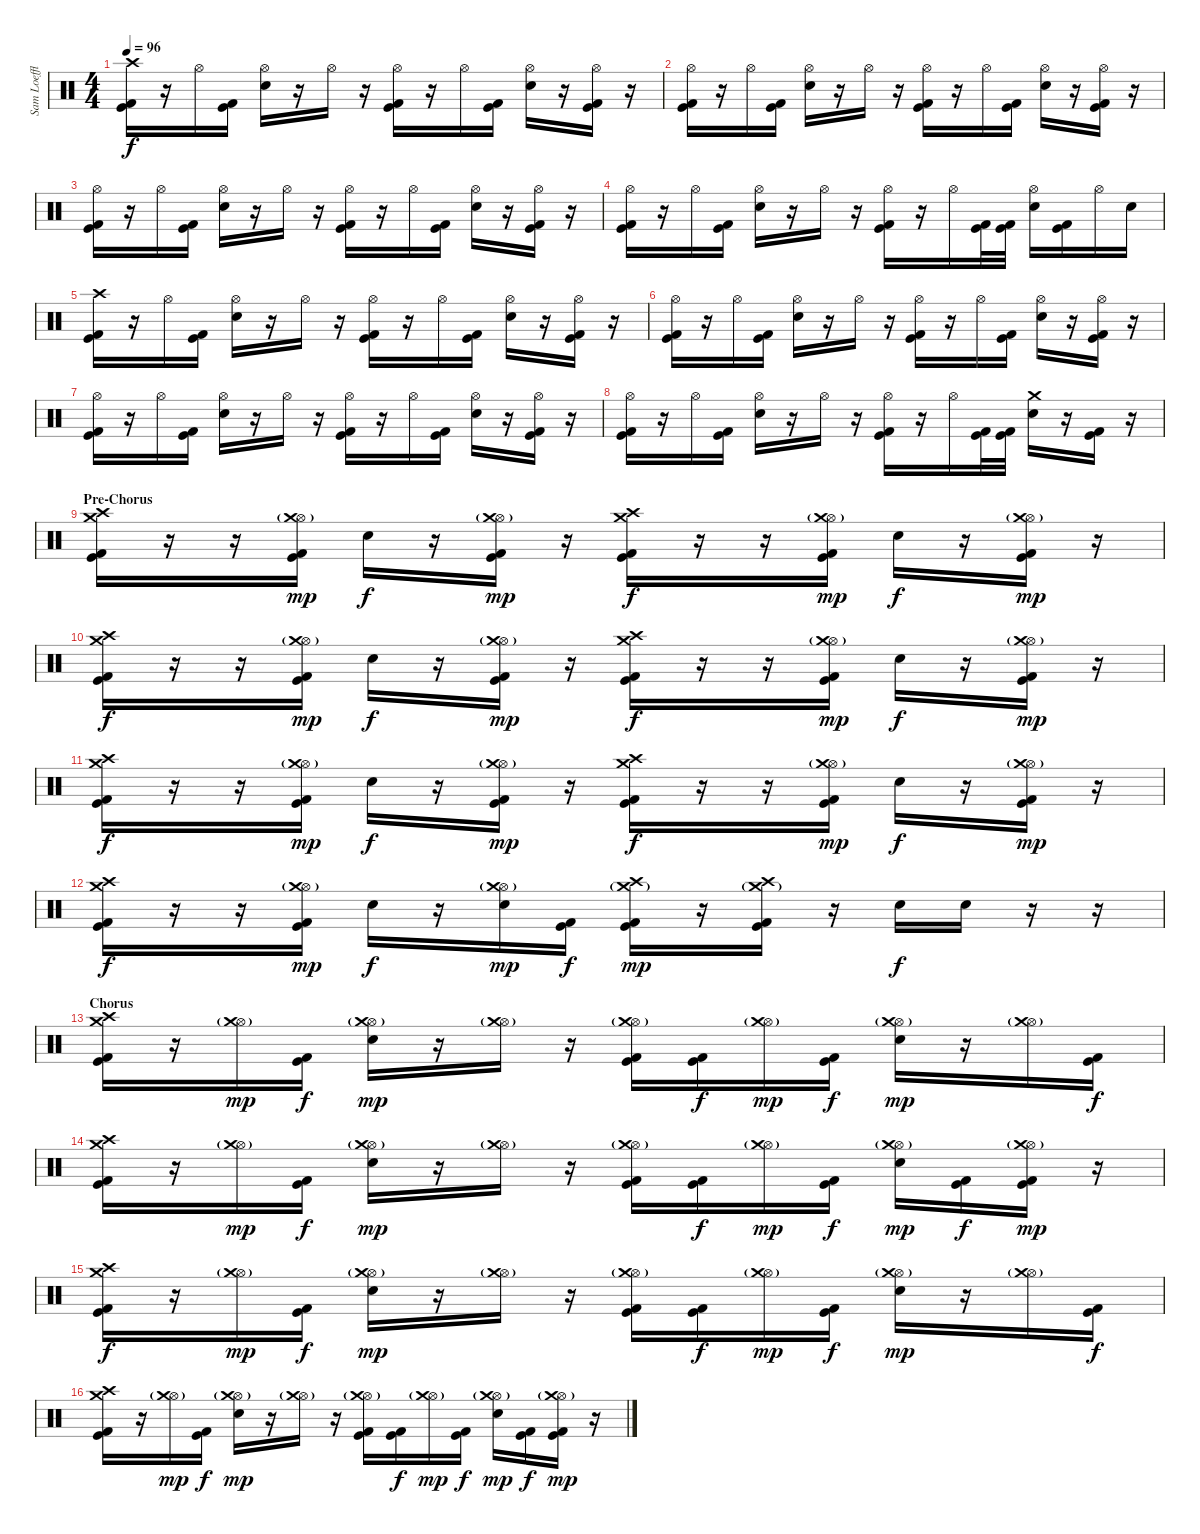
\track ("Sam Loeffler - Drums" "Sam Loeffl") {instrument percussion}
\staff {score}
\articulation defaults
\ts (4 4)
\tempo 96
\clef neutral
\ks c
("Crash high (hit)" "Kick (hit)" "Kick (hit) 2").16{dy f} r.16 "Hi-Hat (open)".16 ("Kick (hit)" "Kick (hit) 2").16 ("Hi-Hat (open)" "Electric Snare (hit)").16 r.16 "Hi-Hat (open)".16 r.16 ("Hi-Hat (open)" "Kick (hit)" "Kick (hit) 2").16 r.16 "Hi-Hat (open)".16 ("Kick (hit)" "Kick (hit) 2").16 ("Hi-Hat (open)" "Electric Snare (hit)").16 r.16 ("Hi-Hat (open)" "Kick (hit)" "Kick (hit) 2").16 r.16 |
("Hi-Hat (open)" "Kick (hit)" "Kick (hit) 2").16 r.16 "Hi-Hat (open)".16 ("Kick (hit)" "Kick (hit) 2").16 ("Hi-Hat (open)" "Electric Snare (hit)").16 r.16 "Hi-Hat (open)".16 r.16 ("Hi-Hat (open)" "Kick (hit)" "Kick (hit) 2").16 r.16 "Hi-Hat (open)".16 ("Kick (hit)" "Kick (hit) 2").16 ("Hi-Hat (open)" "Electric Snare (hit)").16 r.16 ("Hi-Hat (open)" "Kick (hit)" "Kick (hit) 2").16 r.16 |
("Hi-Hat (open)" "Kick (hit)" "Kick (hit) 2").16 r.16 "Hi-Hat (open)".16 ("Kick (hit)" "Kick (hit) 2").16 ("Hi-Hat (open)" "Electric Snare (hit)").16 r.16 "Hi-Hat (open)".16 r.16 ("Hi-Hat (open)" "Kick (hit)" "Kick (hit) 2").16 r.16 "Hi-Hat (open)".16 ("Kick (hit)" "Kick (hit) 2").16 ("Hi-Hat (open)" "Electric Snare (hit)").16 r.16 ("Hi-Hat (open)" "Kick (hit)" "Kick (hit) 2").16 r.16 |
("Hi-Hat (open)" "Kick (hit)" "Kick (hit) 2").16 r.16 "Hi-Hat (open)".16 ("Kick (hit)" "Kick (hit) 2").16 ("Hi-Hat (open)" "Electric Snare (hit)").16 r.16 "Hi-Hat (open)".16 r.16 ("Hi-Hat (open)" "Kick (hit)" "Kick (hit) 2").16 r.16 "Hi-Hat (open)".16 ("Kick (hit)" "Kick (hit) 2").32 ("Kick (hit)" "Kick (hit) 2").32 ("Hi-Hat (open)" "Electric Snare (hit)").16 ("Kick (hit)" "Kick (hit) 2").16 "Hi-Hat (open)".16 "Electric Snare (hit)".16 |
("Crash high (hit)" "Kick (hit)" "Kick (hit) 2").16 r.16 "Hi-Hat (open)".16 ("Kick (hit)" "Kick (hit) 2").16 ("Hi-Hat (open)" "Electric Snare (hit)").16 r.16 "Hi-Hat (open)".16 r.16 ("Hi-Hat (open)" "Kick (hit)" "Kick (hit) 2").16 r.16 "Hi-Hat (open)".16 ("Kick (hit)" "Kick (hit) 2").16 ("Hi-Hat (open)" "Electric Snare (hit)").16 r.16 ("Hi-Hat (open)" "Kick (hit)" "Kick (hit) 2").16 r.16 |
("Hi-Hat (open)" "Kick (hit)" "Kick (hit) 2").16 r.16 "Hi-Hat (open)".16 ("Kick (hit)" "Kick (hit) 2").16 ("Hi-Hat (open)" "Electric Snare (hit)").16 r.16 "Hi-Hat (open)".16 r.16 ("Hi-Hat (open)" "Kick (hit)" "Kick (hit) 2").16 r.16 "Hi-Hat (open)".16 ("Kick (hit)" "Kick (hit) 2").16 ("Hi-Hat (open)" "Electric Snare (hit)").16 r.16 ("Hi-Hat (open)" "Kick (hit)" "Kick (hit) 2").16 r.16 |
("Hi-Hat (open)" "Kick (hit)" "Kick (hit) 2").16 r.16 "Hi-Hat (open)".16 ("Kick (hit)" "Kick (hit) 2").16 ("Hi-Hat (open)" "Electric Snare (hit)").16 r.16 "Hi-Hat (open)".16 r.16 ("Hi-Hat (open)" "Kick (hit)" "Kick (hit) 2").16 r.16 "Hi-Hat (open)".16 ("Kick (hit)" "Kick (hit) 2").16 ("Hi-Hat (open)" "Electric Snare (hit)").16 r.16 ("Hi-Hat (open)" "Kick (hit)" "Kick (hit) 2").16 r.16 |
("Hi-Hat (open)" "Kick (hit)" "Kick (hit) 2").16 r.16 "Hi-Hat (open)".16 ("Kick (hit)" "Kick (hit) 2").16 ("Hi-Hat (open)" "Electric Snare (hit)").16 r.16 "Hi-Hat (open)".16 r.16 ("Hi-Hat (open)" "Kick (hit)" "Kick (hit) 2").16 r.16 "Hi-Hat (open)".16 ("Kick (hit)" "Kick (hit) 2").32 ("Kick (hit)" "Kick (hit) 2").32 ("Crash medium (hit)" "Electric Snare (hit)").16 r.16 ("Kick (hit)" "Kick (hit) 2").16 r.16 |
\section ("" "Pre-Chorus")
("Crash high (hit)" "Crash medium (hit)" "Kick (hit)" "Kick (hit) 2").16 r.16 r.16 ("Hi-Hat (open)" "Crash medium (hit)"{g} "Kick (hit)" "Kick (hit) 2").16{dy mp} "Electric Snare (hit)".16{dy f} r.16 ("Hi-Hat (open)" "Crash medium (hit)"{g} "Kick (hit)" "Kick (hit) 2").16{dy mp} r.16 ("Crash high (hit)" "Crash medium (hit)" "Kick (hit)" "Kick (hit) 2").16{dy f} r.16 r.16 ("Hi-Hat (open)" "Crash medium (hit)"{g} "Kick (hit)" "Kick (hit) 2").16{dy mp} "Electric Snare (hit)".16{dy f} r.16 ("Hi-Hat (open)" "Crash medium (hit)"{g} "Kick (hit)" "Kick (hit) 2").16{dy mp} r.16 |
("Crash high (hit)" "Crash medium (hit)" "Kick (hit)" "Kick (hit) 2").16{dy f} r.16 r.16 ("Hi-Hat (open)" "Crash medium (hit)"{g} "Kick (hit)" "Kick (hit) 2").16{dy mp} "Electric Snare (hit)".16{dy f} r.16 ("Hi-Hat (open)" "Crash medium (hit)"{g} "Kick (hit)" "Kick (hit) 2").16{dy mp} r.16 ("Crash high (hit)" "Crash medium (hit)" "Kick (hit)" "Kick (hit) 2").16{dy f} r.16 r.16 ("Hi-Hat (open)" "Crash medium (hit)"{g} "Kick (hit)" "Kick (hit) 2").16{dy mp} "Electric Snare (hit)".16{dy f} r.16 ("Hi-Hat (open)" "Crash medium (hit)"{g} "Kick (hit)" "Kick (hit) 2").16{dy mp} r.16 |
("Crash high (hit)" "Crash medium (hit)" "Kick (hit)" "Kick (hit) 2").16{dy f} r.16 r.16 ("Hi-Hat (open)" "Crash medium (hit)"{g} "Kick (hit)" "Kick (hit) 2").16{dy mp} "Electric Snare (hit)".16{dy f} r.16 ("Hi-Hat (open)" "Crash medium (hit)"{g} "Kick (hit)" "Kick (hit) 2").16{dy mp} r.16 ("Crash high (hit)" "Crash medium (hit)" "Kick (hit)" "Kick (hit) 2").16{dy f} r.16 r.16 ("Hi-Hat (open)" "Crash medium (hit)"{g} "Kick (hit)" "Kick (hit) 2").16{dy mp} "Electric Snare (hit)".16{dy f} r.16 ("Hi-Hat (open)" "Crash medium (hit)"{g} "Kick (hit)" "Kick (hit) 2").16{dy mp} r.16 |
("Crash high (hit)" "Crash medium (hit)" "Kick (hit)" "Kick (hit) 2").16{dy f} r.16 r.16 ("Hi-Hat (open)" "Crash medium (hit)"{g} "Kick (hit)" "Kick (hit) 2").16{dy mp} "Electric Snare (hit)".16{dy f} r.16 ("Hi-Hat (open)" "Crash medium (hit)"{g} "Electric Snare (hit)").16{dy mp} ("Kick (hit)" "Kick (hit) 2").16{dy f} ("Crash high (hit)" "Crash medium (hit)"{g} "Kick (hit)" "Kick (hit) 2").16{dy mp} r.16 ("Crash high (hit)" "Crash medium (hit)"{g} "Kick (hit)" "Kick (hit) 2").16 r.16 "Electric Snare (hit)".16{dy f} "Electric Snare (hit)".16 r.16 r.16 |
\section ("" "Chorus")
("Crash high (hit)" "Crash medium (hit)" "Kick (hit)" "Kick (hit) 2").16 r.16 ("Hi-Hat (open)" "Crash medium (hit)"{g}).16{dy mp} ("Kick (hit)" "Kick (hit) 2").16{dy f} ("Hi-Hat (open)" "Crash medium (hit)"{g} "Electric Snare (hit)").16{dy mp} r.16 ("Hi-Hat (open)" "Crash medium (hit)"{g}).16 r.16 ("Hi-Hat (open)" "Crash medium (hit)"{g} "Kick (hit)" "Kick (hit) 2").16 ("Kick (hit)" "Kick (hit) 2").16{dy f} ("Hi-Hat (open)" "Crash medium (hit)"{g}).16{dy mp} ("Kick (hit)" "Kick (hit) 2").16{dy f} ("Hi-Hat (open)" "Crash medium (hit)"{g} "Electric Snare (hit)").16{dy mp} r.16 ("Hi-Hat (open)" "Crash medium (hit)"{g}).16 ("Kick (hit)" "Kick (hit) 2").16{dy f} |
("Crash high (hit)" "Crash medium (hit)" "Kick (hit)" "Kick (hit) 2").16 r.16 ("Hi-Hat (open)" "Crash medium (hit)"{g}).16{dy mp} ("Kick (hit)" "Kick (hit) 2").16{dy f} ("Hi-Hat (open)" "Crash medium (hit)"{g} "Electric Snare (hit)").16{dy mp} r.16 ("Hi-Hat (open)" "Crash medium (hit)"{g}).16 r.16 ("Hi-Hat (open)" "Crash medium (hit)"{g} "Kick (hit)" "Kick (hit) 2").16 ("Kick (hit)" "Kick (hit) 2").16{dy f} ("Hi-Hat (open)" "Crash medium (hit)"{g}).16{dy mp} ("Kick (hit)" "Kick (hit) 2").16{dy f} ("Hi-Hat (open)" "Crash medium (hit)"{g} "Electric Snare (hit)").16{dy mp} ("Kick (hit)" "Kick (hit) 2").16{dy f} ("Hi-Hat (open)" "Crash medium (hit)"{g} "Kick (hit)" "Kick (hit) 2").16{dy mp} r.16 |
("Crash high (hit)" "Crash medium (hit)" "Kick (hit)" "Kick (hit) 2").16{dy f} r.16 ("Hi-Hat (open)" "Crash medium (hit)"{g}).16{dy mp} ("Kick (hit)" "Kick (hit) 2").16{dy f} ("Hi-Hat (open)" "Crash medium (hit)"{g} "Electric Snare (hit)").16{dy mp} r.16 ("Hi-Hat (open)" "Crash medium (hit)"{g}).16 r.16 ("Hi-Hat (open)" "Crash medium (hit)"{g} "Kick (hit)" "Kick (hit) 2").16 ("Kick (hit)" "Kick (hit) 2").16{dy f} ("Hi-Hat (open)" "Crash medium (hit)"{g}).16{dy mp} ("Kick (hit)" "Kick (hit) 2").16{dy f} ("Hi-Hat (open)" "Crash medium (hit)"{g} "Electric Snare (hit)").16{dy mp} r.16 ("Hi-Hat (open)" "Crash medium (hit)"{g}).16 ("Kick (hit)" "Kick (hit) 2").16{dy f} |
("Crash high (hit)" "Crash medium (hit)" "Kick (hit)" "Kick (hit) 2").16 r.16 ("Hi-Hat (open)" "Crash medium (hit)"{g}).16{dy mp} ("Kick (hit)" "Kick (hit) 2").16{dy f} ("Hi-Hat (open)" "Crash medium (hit)"{g} "Electric Snare (hit)").16{dy mp} r.16 ("Hi-Hat (open)" "Crash medium (hit)"{g}).16 r.16 ("Hi-Hat (open)" "Crash medium (hit)"{g} "Kick (hit)" "Kick (hit) 2").16 ("Kick (hit)" "Kick (hit) 2").16{dy f} ("Hi-Hat (open)" "Crash medium (hit)"{g}).16{dy mp} ("Kick (hit)" "Kick (hit) 2").16{dy f} ("Hi-Hat (open)" "Crash medium (hit)"{g} "Electric Snare (hit)").16{dy mp} ("Kick (hit)" "Kick (hit) 2").16{dy f} ("Hi-Hat (open)" "Crash medium (hit)"{g} "Kick (hit)" "Kick (hit) 2").16{dy mp} r.16
